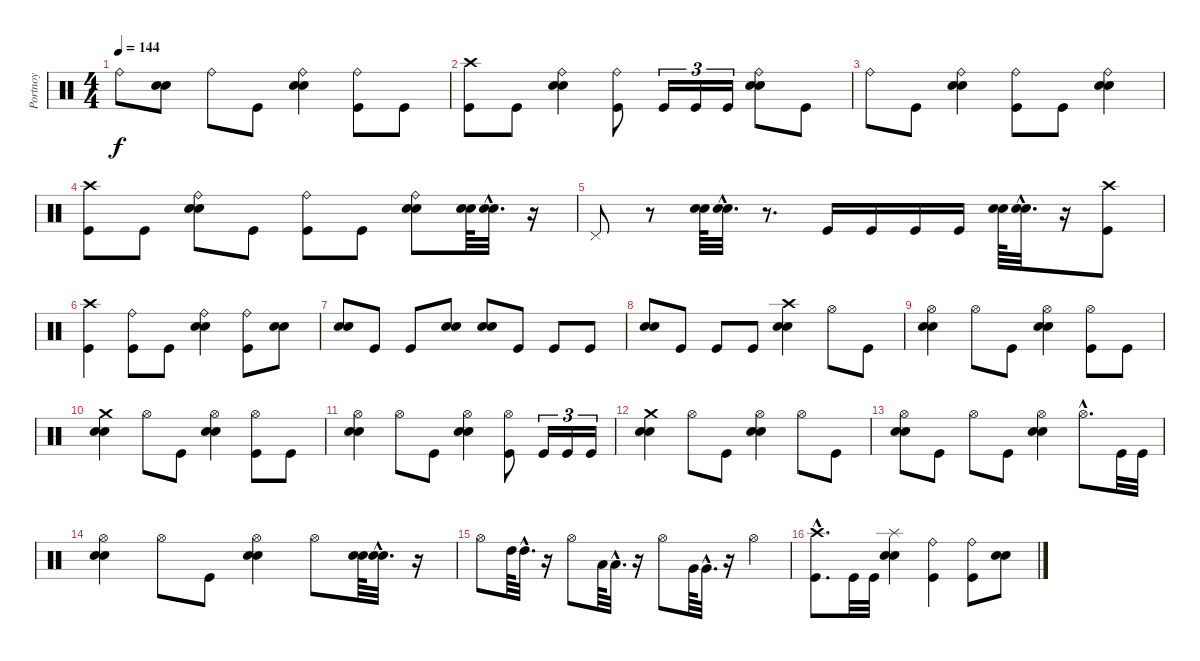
\track ("Portnoy" "Portnoy") {instrument percussion}
\staff {score}
\articulation defaults
\ts (4 4)
\tempo 144
\clef neutral
\ks c "Ride (bell)".8{dy f}
("Snare (hit) 2" "Electric Snare (hit)").8 "Ride (bell)".8 "Kick (hit)".8 ("Ride (bell)" "Snare (hit) 2" "Electric Snare (hit)").4 ("Ride (bell)" "Kick (hit)").8 "Kick (hit)".8 |
("Crash high (hit)" "Kick (hit)").8 "Kick (hit)".8 ("Ride (bell)" "Snare (hit) 2" "Electric Snare (hit)").4 ("Ride (bell)" "Kick (hit)").8 "Kick (hit)".16{tu (3 2)} "Kick (hit)".16{tu (3 2)} "Kick (hit)".16{tu (3 2)} ("Ride (bell)" "Snare (hit) 2" "Electric Snare (hit)").8 "Kick (hit)".8 |
"Ride (bell)".8 "Kick (hit)".8 ("Ride (bell)" "Snare (hit) 2" "Electric Snare (hit)").4 ("Ride (bell)" "Kick (hit)").8 "Kick (hit)".8 ("Ride (bell)" "Snare (hit) 2" "Electric Snare (hit)").4 |
("Crash high (hit)" "Kick (hit)").8 "Kick (hit)".8 ("Ride (bell)" "Snare (hit) 2" "Electric Snare (hit)").8 "Kick (hit)".8 ("Ride (bell)" "Kick (hit)").8 "Kick (hit)".8 ("Ride (bell)" "Snare (hit) 2" "Electric Snare (hit)").8 ("Snare (hit) 2" "Electric Snare (hit)").64 ("Snare (hit) 2"{hac} "Electric Snare (hit)"{hac}).32{d} r.16 |
"Pedal Hi-Hat (hit)".8 r.8 ("Snare (hit) 2" "Electric Snare (hit)").64 ("Snare (hit) 2"{hac} "Electric Snare (hit)"{hac}).32{d} r.8{d} "Kick (hit)".16 "Kick (hit)".16 "Kick (hit)".16 "Kick (hit)".16 ("Snare (hit) 2" "Electric Snare (hit)").64 ("Snare (hit) 2"{hac} "Electric Snare (hit)"{hac}).32{d} r.16 ("Crash high (hit)" "Kick (hit)").8 |
("Crash high (hit)" "Kick (hit)").4 ("Ride (bell)" "Kick (hit)").8 "Kick (hit)".8 ("Ride (bell)" "Snare (hit) 2" "Electric Snare (hit)").4 ("Ride (bell)" "Kick (hit)").8 ("Snare (hit) 2" "Electric Snare (hit)").8 |
("Snare (hit) 2" "Electric Snare (hit)").8 "Kick (hit)".8 "Kick (hit)".8 ("Snare (hit) 2" "Electric Snare (hit)").8 ("Snare (hit) 2" "Electric Snare (hit)").8 "Kick (hit)".8 "Kick (hit)".8 "Kick (hit)".8 |
("Snare (hit) 2" "Electric Snare (hit)").8 "Kick (hit)".8 "Kick (hit)".8 "Kick (hit)".8 ("Crash high (hit)" "Snare (hit) 2" "Electric Snare (hit)").4 "Hi-Hat (open)".8 "Kick (hit)".8 |
("Hi-Hat (open)" "Snare (hit) 2" "Electric Snare (hit)").4 "Hi-Hat (open)".8 "Kick (hit)".8 ("Hi-Hat (open)" "Snare (hit) 2" "Electric Snare (hit)").4 ("Hi-Hat (open)" "Kick (hit)").8 "Kick (hit)".8 |
("Crash medium (hit)" "Snare (hit) 2" "Electric Snare (hit)").4 "Hi-Hat (open)".8 "Kick (hit)".8 ("Hi-Hat (open)" "Snare (hit) 2" "Electric Snare (hit)").4 ("Hi-Hat (open)" "Kick (hit)").8 "Kick (hit)".8 |
("Hi-Hat (open)" "Snare (hit) 2" "Electric Snare (hit)").4 "Hi-Hat (open)".8 "Kick (hit)".8 ("Hi-Hat (open)" "Snare (hit) 2" "Electric Snare (hit)").4 ("Hi-Hat (open)" "Kick (hit)").8 "Kick (hit)".16{tu (3 2)} "Kick (hit)".16{tu (3 2)} "Kick (hit)".16{tu (3 2)} |
("Crash medium (hit)" "Electric Snare (hit)" "Snare (hit) 2").4 "Hi-Hat (open)".8 "Kick (hit)".8 ("Hi-Hat (open)" "Electric Snare (hit)" "Snare (hit) 2").4 "Hi-Hat (open)".8 "Kick (hit)".8 |
("Hi-Hat (open)" "Snare (hit) 2" "Electric Snare (hit)").8 "Kick (hit)".8 "Hi-Hat (open)".8 "Kick (hit)".8 ("Hi-Hat (open)" "Snare (hit) 2" "Electric Snare (hit)").4 "Hi-Hat (open)"{hac}.8{d} "Kick (hit)".32 "Kick (hit)".32 |
("Hi-Hat (open)" "Snare (hit) 2" "Electric Snare (hit)").4 "Hi-Hat (open)".8 "Kick (hit)".8 ("Hi-Hat (open)" "Snare (hit) 2" "Electric Snare (hit)").4 "Hi-Hat (open)".8 ("Snare (hit) 2" "Electric Snare (hit)").64 ("Snare (hit) 2"{hac} "Electric Snare (hit)"{hac}).32{d} r.16 |
"Hi-Hat (open)".8 "High Tom (hit)".64 "High Tom (hit)"{hac}.32{d} r.16 "Hi-Hat (open)".8 "Low Tom (hit)".64 "Low Tom (hit)"{hac}.32{d} r.16 "Hi-Hat (open)".8 "Very Low Tom (hit)".64 "Very Low Tom (hit)"{hac}.32{d} r.16 "Hi-Hat (open)".4 |
("Crash high (hit)"{hac} "Kick (hit)"{hac}).8{d} "Kick (hit)".32 "Kick (hit)".32 ("Splash (hit)" "Snare (hit) 2" "Electric Snare (hit)").4 ("Ride (bell)" "Kick (hit)").4 ("Ride (bell)" "Kick (hit)").8 ("Snare (hit) 2" "Electric Snare (hit)").8
